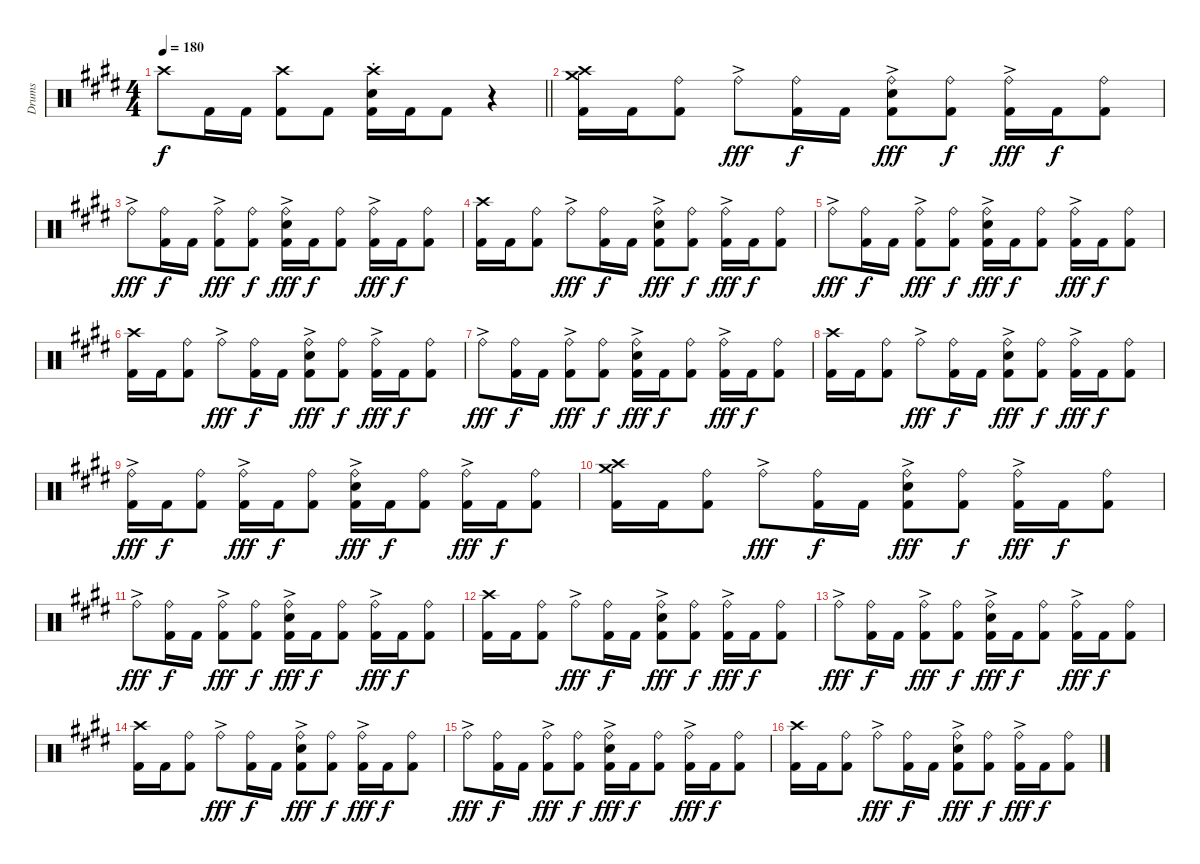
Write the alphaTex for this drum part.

\track ("Drums" "Drums") {instrument percussion}
\staff {score}
\articulation defaults
\ts (4 4)
\tempo 180
\clef neutral
\barLineRight lightlight
\ks c#minor "Crash high (hit)".8{dy f} "Kick (hit) 2".16 "Kick (hit) 2".16
("Crash high (hit)" "Kick (hit) 2").8 "Kick (hit) 2".8 ("Crash high (hit)"{st} "Snare (hit) 2"{st} "Kick (hit) 2").16 "Kick (hit) 2".16 "Kick (hit) 2".8 r.4 |
("Crash high (hit)" "Crash medium (hit)" "Kick (hit) 2").16 "Kick (hit) 2".16 ("Ride (bell)" "Kick (hit) 2").8 "Ride (bell)"{ac}.8{dy fff} ("Ride (bell)" "Kick (hit) 2").16{dy f} "Kick (hit) 2".16 ("Ride (bell)"{ac} "Snare (hit) 2" "Kick (hit) 2").8{dy fff} ("Ride (bell)" "Kick (hit) 2").8{dy f} ("Ride (bell)"{ac} "Kick (hit) 2").16{dy fff} "Kick (hit) 2".16{dy f} ("Ride (bell)" "Kick (hit) 2").8 |
"Ride (bell)"{ac}.8{dy fff} ("Ride (bell)" "Kick (hit) 2").16{dy f} "Kick (hit) 2".16 ("Ride (bell)"{ac} "Kick (hit) 2").8{dy fff} ("Ride (bell)" "Kick (hit) 2").8{dy f} ("Ride (bell)"{ac} "Snare (hit) 2" "Kick (hit) 2").16{dy fff} "Kick (hit) 2".16{dy f} ("Ride (bell)" "Kick (hit) 2").8 ("Ride (bell)"{ac} "Kick (hit) 2").16{dy fff} "Kick (hit) 2".16{dy f} ("Ride (bell)" "Kick (hit) 2").8 |
("Crash high (hit)" "Kick (hit) 2").16 "Kick (hit) 2".16 ("Ride (bell)" "Kick (hit) 2").8 "Ride (bell)"{ac}.8{dy fff} ("Ride (bell)" "Kick (hit) 2").16{dy f} "Kick (hit) 2".16 ("Ride (bell)"{ac} "Snare (hit) 2" "Kick (hit) 2").8{dy fff} ("Ride (bell)" "Kick (hit) 2").8{dy f} ("Ride (bell)"{ac} "Kick (hit) 2").16{dy fff} "Kick (hit) 2".16{dy f} ("Ride (bell)" "Kick (hit) 2").8 |
"Ride (bell)"{ac}.8{dy fff} ("Ride (bell)" "Kick (hit) 2").16{dy f} "Kick (hit) 2".16 ("Ride (bell)"{ac} "Kick (hit) 2").8{dy fff} ("Ride (bell)" "Kick (hit) 2").8{dy f} ("Ride (bell)"{ac} "Snare (hit) 2" "Kick (hit) 2").16{dy fff} "Kick (hit) 2".16{dy f} ("Ride (bell)" "Kick (hit) 2").8 ("Ride (bell)"{ac} "Kick (hit) 2").16{dy fff} "Kick (hit) 2".16{dy f} ("Ride (bell)" "Kick (hit) 2").8 |
("Crash high (hit)" "Kick (hit) 2").16 "Kick (hit) 2".16 ("Ride (bell)" "Kick (hit) 2").8 "Ride (bell)"{ac}.8{dy fff} ("Ride (bell)" "Kick (hit) 2").16{dy f} "Kick (hit) 2".16 ("Ride (bell)"{ac} "Snare (hit) 2" "Kick (hit) 2").8{dy fff} ("Ride (bell)" "Kick (hit) 2").8{dy f} ("Ride (bell)"{ac} "Kick (hit) 2").16{dy fff} "Kick (hit) 2".16{dy f} ("Ride (bell)" "Kick (hit) 2").8 |
"Ride (bell)"{ac}.8{dy fff} ("Ride (bell)" "Kick (hit) 2").16{dy f} "Kick (hit) 2".16 ("Ride (bell)"{ac} "Kick (hit) 2").8{dy fff} ("Ride (bell)" "Kick (hit) 2").8{dy f} ("Ride (bell)"{ac} "Snare (hit) 2" "Kick (hit) 2").16{dy fff} "Kick (hit) 2".16{dy f} ("Ride (bell)" "Kick (hit) 2").8 ("Ride (bell)"{ac} "Kick (hit) 2").16{dy fff} "Kick (hit) 2".16{dy f} ("Ride (bell)" "Kick (hit) 2").8 |
("Crash high (hit)" "Kick (hit) 2").16 "Kick (hit) 2".16 ("Ride (bell)" "Kick (hit) 2").8 "Ride (bell)"{ac}.8{dy fff} ("Ride (bell)" "Kick (hit) 2").16{dy f} "Kick (hit) 2".16 ("Ride (bell)"{ac} "Snare (hit) 2" "Kick (hit) 2").8{dy fff} ("Ride (bell)" "Kick (hit) 2").8{dy f} ("Ride (bell)"{ac} "Kick (hit) 2").16{dy fff} "Kick (hit) 2".16{dy f} ("Ride (bell)" "Kick (hit) 2").8 |
("Ride (bell)"{ac} "Kick (hit) 2").16{dy fff} "Kick (hit) 2".16{dy f} ("Ride (bell)" "Kick (hit) 2").8 ("Ride (bell)"{ac} "Kick (hit) 2").16{dy fff} "Kick (hit) 2".16{dy f} ("Ride (bell)" "Kick (hit) 2").8 ("Ride (bell)"{ac} "Snare (hit) 2" "Kick (hit) 2").16{dy fff} "Kick (hit) 2".16{dy f} ("Ride (bell)" "Kick (hit) 2").8 ("Ride (bell)"{ac} "Kick (hit) 2").16{dy fff} "Kick (hit) 2".16{dy f} ("Ride (bell)" "Kick (hit) 2").8 |
("Crash high (hit)" "Crash medium (hit)" "Kick (hit) 2").16 "Kick (hit) 2".16 ("Ride (bell)" "Kick (hit) 2").8 "Ride (bell)"{ac}.8{dy fff} ("Ride (bell)" "Kick (hit) 2").16{dy f} "Kick (hit) 2".16 ("Ride (bell)"{ac} "Snare (hit) 2" "Kick (hit) 2").8{dy fff} ("Ride (bell)" "Kick (hit) 2").8{dy f} ("Ride (bell)"{ac} "Kick (hit) 2").16{dy fff} "Kick (hit) 2".16{dy f} ("Ride (bell)" "Kick (hit) 2").8 |
"Ride (bell)"{ac}.8{dy fff} ("Ride (bell)" "Kick (hit) 2").16{dy f} "Kick (hit) 2".16 ("Ride (bell)"{ac} "Kick (hit) 2").8{dy fff} ("Ride (bell)" "Kick (hit) 2").8{dy f} ("Ride (bell)"{ac} "Snare (hit) 2" "Kick (hit) 2").16{dy fff} "Kick (hit) 2".16{dy f} ("Ride (bell)" "Kick (hit) 2").8 ("Ride (bell)"{ac} "Kick (hit) 2").16{dy fff} "Kick (hit) 2".16{dy f} ("Ride (bell)" "Kick (hit) 2").8 |
("Crash high (hit)" "Kick (hit) 2").16 "Kick (hit) 2".16 ("Ride (bell)" "Kick (hit) 2").8 "Ride (bell)"{ac}.8{dy fff} ("Ride (bell)" "Kick (hit) 2").16{dy f} "Kick (hit) 2".16 ("Ride (bell)"{ac} "Snare (hit) 2" "Kick (hit) 2").8{dy fff} ("Ride (bell)" "Kick (hit) 2").8{dy f} ("Ride (bell)"{ac} "Kick (hit) 2").16{dy fff} "Kick (hit) 2".16{dy f} ("Ride (bell)" "Kick (hit) 2").8 |
"Ride (bell)"{ac}.8{dy fff} ("Ride (bell)" "Kick (hit) 2").16{dy f} "Kick (hit) 2".16 ("Ride (bell)"{ac} "Kick (hit) 2").8{dy fff} ("Ride (bell)" "Kick (hit) 2").8{dy f} ("Ride (bell)"{ac} "Snare (hit) 2" "Kick (hit) 2").16{dy fff} "Kick (hit) 2".16{dy f} ("Ride (bell)" "Kick (hit) 2").8 ("Ride (bell)"{ac} "Kick (hit) 2").16{dy fff} "Kick (hit) 2".16{dy f} ("Ride (bell)" "Kick (hit) 2").8 |
("Crash high (hit)" "Kick (hit) 2").16 "Kick (hit) 2".16 ("Ride (bell)" "Kick (hit) 2").8 "Ride (bell)"{ac}.8{dy fff} ("Ride (bell)" "Kick (hit) 2").16{dy f} "Kick (hit) 2".16 ("Ride (bell)"{ac} "Snare (hit) 2" "Kick (hit) 2").8{dy fff} ("Ride (bell)" "Kick (hit) 2").8{dy f} ("Ride (bell)"{ac} "Kick (hit) 2").16{dy fff} "Kick (hit) 2".16{dy f} ("Ride (bell)" "Kick (hit) 2").8 |
"Ride (bell)"{ac}.8{dy fff} ("Ride (bell)" "Kick (hit) 2").16{dy f} "Kick (hit) 2".16 ("Ride (bell)"{ac} "Kick (hit) 2").8{dy fff} ("Ride (bell)" "Kick (hit) 2").8{dy f} ("Ride (bell)"{ac} "Snare (hit) 2" "Kick (hit) 2").16{dy fff} "Kick (hit) 2".16{dy f} ("Ride (bell)" "Kick (hit) 2").8 ("Ride (bell)"{ac} "Kick (hit) 2").16{dy fff} "Kick (hit) 2".16{dy f} ("Ride (bell)" "Kick (hit) 2").8 |
("Crash high (hit)" "Kick (hit) 2").16 "Kick (hit) 2".16 ("Ride (bell)" "Kick (hit) 2").8 "Ride (bell)"{ac}.8{dy fff} ("Ride (bell)" "Kick (hit) 2").16{dy f} "Kick (hit) 2".16 ("Ride (bell)"{ac} "Snare (hit) 2" "Kick (hit) 2").8{dy fff} ("Ride (bell)" "Kick (hit) 2").8{dy f} ("Ride (bell)"{ac} "Kick (hit) 2").16{dy fff} "Kick (hit) 2".16{dy f} ("Ride (bell)" "Kick (hit) 2").8
